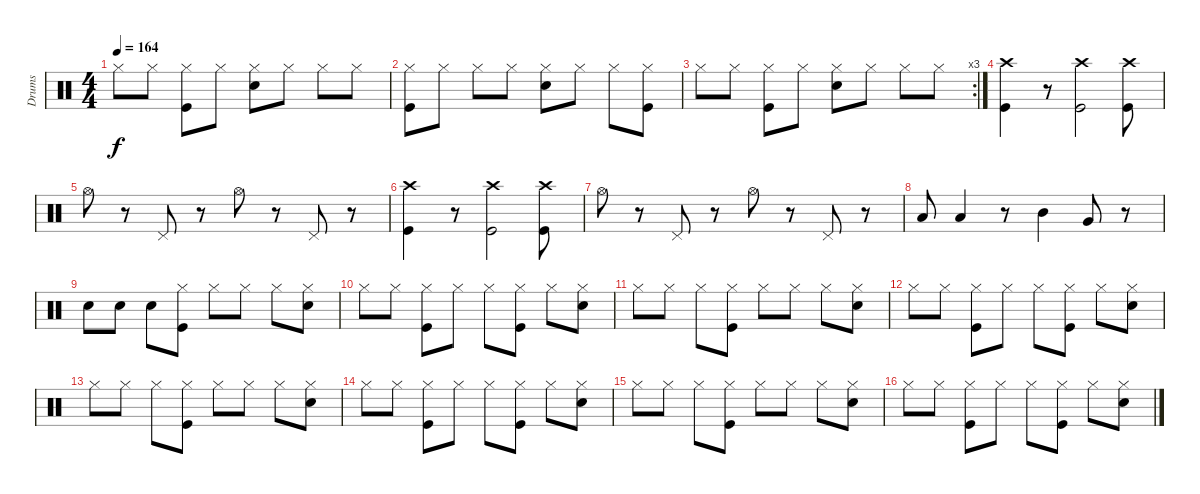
\track ("Drums" "Drums") {instrument percussion}
\staff {score}
\articulation defaults
\ts (4 4)
\tempo 164
\clef neutral
\ks c "Hi-Hat (closed)".8{dy f} "Hi-Hat (closed)".8
("Kick (hit)" "Hi-Hat (closed)").8 "Hi-Hat (closed)".8 ("Snare (hit) 2" "Hi-Hat (closed)").8 "Hi-Hat (closed)".8 "Hi-Hat (closed)".8 "Hi-Hat (closed)".8 |
("Kick (hit)" "Hi-Hat (closed)").8 "Hi-Hat (closed)".8 "Hi-Hat (closed)".8 "Hi-Hat (closed)".8 ("Snare (hit) 2" "Hi-Hat (closed)").8 "Hi-Hat (closed)".8 "Hi-Hat (closed)".8 ("Kick (hit)" "Hi-Hat (closed)").8 |
\rc 3 "Hi-Hat (closed)".8 "Hi-Hat (closed)".8
("Kick (hit)" "Hi-Hat (closed)").8 "Hi-Hat (closed)".8 ("Snare (hit) 2" "Hi-Hat (closed)").8 "Hi-Hat (closed)".8 "Hi-Hat (closed)".8 "Hi-Hat (closed)".8 |
("Crash high (hit)" "Kick (hit)").4 r.8 ("Crash high (hit)" "Kick (hit)").2 ("Crash high (hit)" "Kick (hit)").8 |
"Hi-Hat (open)".8 r.8 "Pedal Hi-Hat (hit)".8 r.8 "Hi-Hat (open)".8 r.8 "Pedal Hi-Hat (hit)".8 r.8 |
("Crash high (hit)" "Kick (hit)").4 r.8 ("Crash high (hit)" "Kick (hit)").2 ("Crash high (hit)" "Kick (hit)").8 |
"Hi-Hat (open)".8 r.8 "Pedal Hi-Hat (hit)".8 r.8 "Hi-Hat (open)".8 r.8 "Pedal Hi-Hat (hit)".8 r.8 |
"Low Tom (hit)".8 "Low Tom (hit)".4 r.8 "Mid Tom (hit)".4 "Very Low Tom (hit)".8 r.8 |
"Snare (hit) 2".8 "Snare (hit) 2".8 "Snare (hit) 2".8 ("Kick (hit)" "Hi-Hat (closed)").8 "Hi-Hat (closed)".8 "Hi-Hat (closed)".8 "Hi-Hat (closed)".8 ("Snare (hit) 2" "Hi-Hat (closed)").8 |
"Hi-Hat (closed)".8 "Hi-Hat (closed)".8 ("Kick (hit)" "Hi-Hat (closed)").8 "Hi-Hat (closed)".8 "Hi-Hat (closed)".8 ("Kick (hit)" "Hi-Hat (closed)").8 "Hi-Hat (closed)".8 ("Snare (hit) 2" "Hi-Hat (closed)").8 |
"Hi-Hat (closed)".8 "Hi-Hat (closed)".8 "Hi-Hat (closed)".8 ("Kick (hit)" "Hi-Hat (closed)").8 "Hi-Hat (closed)".8 "Hi-Hat (closed)".8 "Hi-Hat (closed)".8 ("Snare (hit) 2" "Hi-Hat (closed)").8 |
"Hi-Hat (closed)".8 "Hi-Hat (closed)".8 ("Kick (hit)" "Hi-Hat (closed)").8 "Hi-Hat (closed)".8 "Hi-Hat (closed)".8 ("Kick (hit)" "Hi-Hat (closed)").8 "Hi-Hat (closed)".8 ("Snare (hit) 2" "Hi-Hat (closed)").8 |
"Hi-Hat (closed)".8 "Hi-Hat (closed)".8 "Hi-Hat (closed)".8 ("Kick (hit)" "Hi-Hat (closed)").8 "Hi-Hat (closed)".8 "Hi-Hat (closed)".8 "Hi-Hat (closed)".8 ("Snare (hit) 2" "Hi-Hat (closed)").8 |
"Hi-Hat (closed)".8 "Hi-Hat (closed)".8 ("Kick (hit)" "Hi-Hat (closed)").8 "Hi-Hat (closed)".8 "Hi-Hat (closed)".8 ("Kick (hit)" "Hi-Hat (closed)").8 "Hi-Hat (closed)".8 ("Snare (hit) 2" "Hi-Hat (closed)").8 |
"Hi-Hat (closed)".8 "Hi-Hat (closed)".8 "Hi-Hat (closed)".8 ("Kick (hit)" "Hi-Hat (closed)").8 "Hi-Hat (closed)".8 "Hi-Hat (closed)".8 "Hi-Hat (closed)".8 ("Snare (hit) 2" "Hi-Hat (closed)").8 |
"Hi-Hat (closed)".8 "Hi-Hat (closed)".8 ("Kick (hit)" "Hi-Hat (closed)").8 "Hi-Hat (closed)".8 "Hi-Hat (closed)".8 ("Kick (hit)" "Hi-Hat (closed)").8 "Hi-Hat (closed)".8 ("Snare (hit) 2" "Hi-Hat (closed)").8
